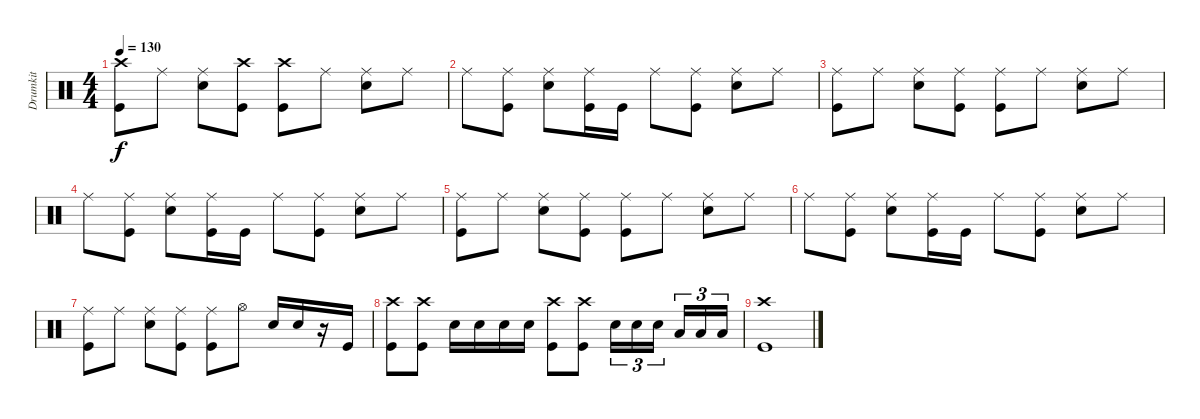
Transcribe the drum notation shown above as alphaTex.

\track ("Drumkit" "Drumkit") {instrument percussion}
\staff {score}
\articulation defaults
\ts (4 4)
\tempo 130
\clef neutral
\ks c
("Kick (hit)" "Crash high (hit)").8{dy f} "Ride (middle)".8 ("Snare (hit) 2" "Ride (middle)").8 ("Kick (hit)" "Crash high (hit)").8 ("Kick (hit)" "Crash high (hit)").8 "Ride (middle)".8 ("Snare (hit) 2" "Ride (middle)").8 "Ride (middle)".8 |
"Ride (middle)".8 ("Kick (hit)" "Ride (middle)").8 ("Snare (hit) 2" "Ride (middle)").8 ("Kick (hit)" "Ride (middle)").16 "Kick (hit)".16 "Ride (middle)".8 ("Kick (hit)" "Ride (middle)").8 ("Snare (hit) 2" "Ride (middle)").8 "Ride (middle)".8 |
("Kick (hit)" "Ride (middle)").8 "Ride (middle)".8 ("Snare (hit) 2" "Ride (middle)").8 ("Kick (hit)" "Ride (middle)").8 ("Kick (hit)" "Ride (middle)").8 "Ride (middle)".8 ("Snare (hit) 2" "Ride (middle)").8 "Ride (middle)".8 |
"Ride (middle)".8 ("Kick (hit)" "Ride (middle)").8 ("Snare (hit) 2" "Ride (middle)").8 ("Kick (hit)" "Ride (middle)").16 "Kick (hit)".16 "Ride (middle)".8 ("Kick (hit)" "Ride (middle)").8 ("Snare (hit) 2" "Ride (middle)").8 "Ride (middle)".8 |
("Kick (hit)" "Ride (middle)").8 "Ride (middle)".8 ("Snare (hit) 2" "Ride (middle)").8 ("Kick (hit)" "Ride (middle)").8 ("Kick (hit)" "Ride (middle)").8 "Ride (middle)".8 ("Snare (hit) 2" "Ride (middle)").8 "Ride (middle)".8 |
"Ride (middle)".8 ("Kick (hit)" "Ride (middle)").8 ("Snare (hit) 2" "Ride (middle)").8 ("Kick (hit)" "Ride (middle)").16 "Kick (hit)".16 "Ride (middle)".8 ("Kick (hit)" "Ride (middle)").8 ("Snare (hit) 2" "Ride (middle)").8 "Ride (middle)".8 |
("Kick (hit)" "Ride (middle)").8 "Ride (middle)".8 ("Snare (hit) 2" "Ride (middle)").8 ("Kick (hit)" "Ride (middle)").8 ("Kick (hit)" "Ride (middle)").8 "Hi-Hat (open)".8 "Snare (hit) 2".16 "Snare (hit) 2".16 r.16 "Kick (hit)".16 |
("Crash high (hit)" "Kick (hit)").8 ("Crash high (hit)" "Kick (hit)").8 "Snare (hit) 2".16 "Snare (hit) 2".16 "Snare (hit) 2".16 "Snare (hit) 2".16 ("Crash high (hit)" "Kick (hit)").8 ("Crash high (hit)" "Kick (hit)").8 "Snare (hit) 2".16{tu (3 2)} "Snare (hit) 2".16{tu (3 2)} "Snare (hit) 2".16{tu (3 2) beam splitsecondary} "Low Tom (hit)".16{tu (3 2)} "Low Tom (hit)".16{tu (3 2)} "Low Tom (hit)".16{tu (3 2)} |
("Crash high (hit)" "Kick (hit)").1
